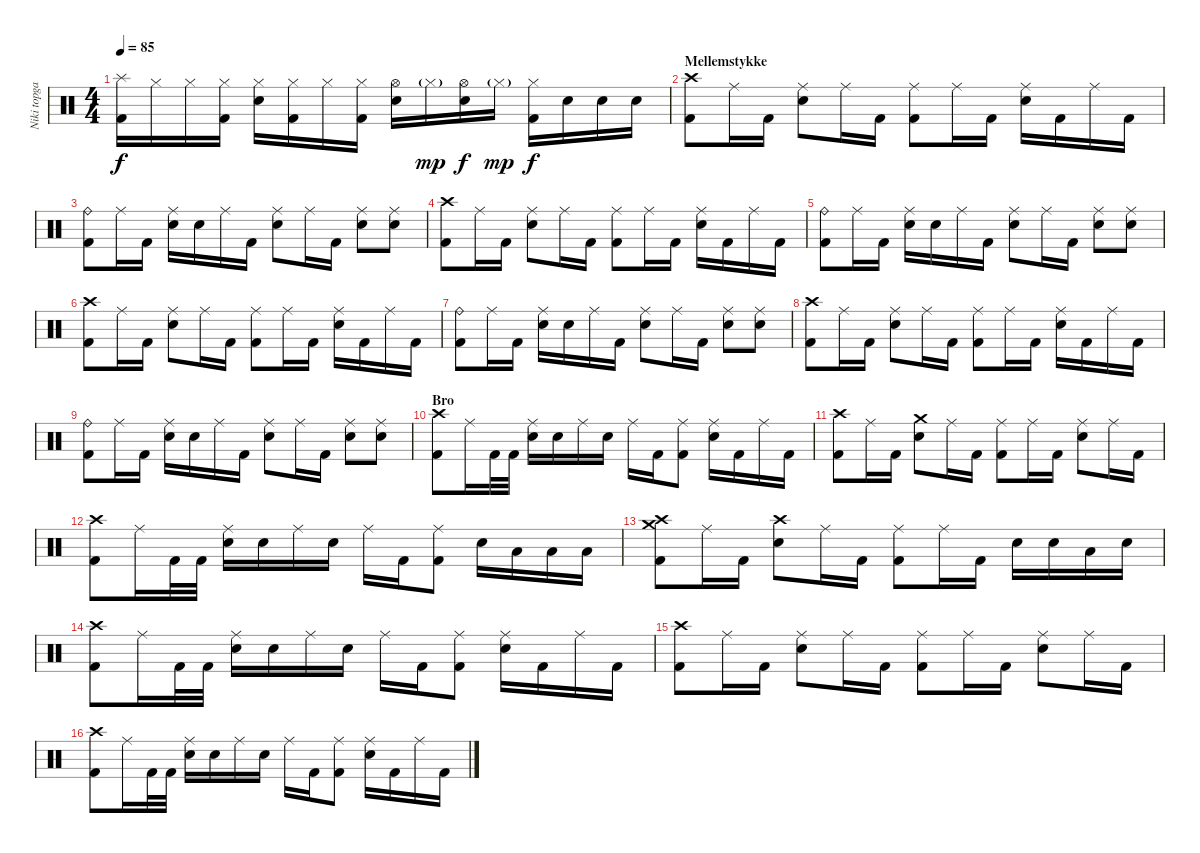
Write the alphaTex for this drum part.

\track ("Niki topgaard" "Niki topga") {instrument percussion}
\staff {score}
\articulation defaults
\ts (4 4)
\tempo 85
\clef neutral
\ks c
("Splash (hit)" "Kick (hit) 2").16{dy f} "Hi-Hat (closed)".16 "Hi-Hat (closed)".16 ("Hi-Hat (closed)" "Kick (hit) 2").16 ("Hi-Hat (closed)" "Snare (hit) 2").16 ("Hi-Hat (closed)" "Kick (hit) 2").16 "Hi-Hat (closed)".16 ("Hi-Hat (closed)" "Kick (hit) 2").16 ("Hi-Hat (open)" "Snare (hit) 2").16 "Hi-Hat (closed)"{g}.16{dy mp} ("Hi-Hat (open)" "Snare (hit) 2").16{dy f} "Hi-Hat (closed)"{g}.16{dy mp} ("Hi-Hat (closed)" "Kick (hit) 2").16{dy f} "Snare (hit) 2".16 "Snare (hit) 2".16 "Snare (hit) 2".16 |
\section ("" "Mellemstykke")
("Crash high (hit)" "Kick (hit) 2").8 "Ride (middle)".16 "Kick (hit) 2".16 ("Ride (middle)" "Snare (hit) 2").8 "Ride (middle)".16 "Kick (hit) 2".16 ("Ride (middle)" "Kick (hit) 2").8 "Ride (middle)".16 "Kick (hit) 2".16 ("Ride (middle)" "Snare (hit) 2").16 "Kick (hit) 2".16 "Ride (middle)".16 "Kick (hit) 2".16 |
("Ride (bell)" "Kick (hit) 2").8 "Ride (middle)".16 "Kick (hit) 2".16 ("Ride (middle)" "Snare (hit) 2").16 "Snare (hit) 2".16 "Ride (middle)".16 "Kick (hit) 2".16 ("Ride (middle)" "Snare (hit) 2").8 "Ride (middle)".16 "Kick (hit) 2".16 ("Ride (middle)" "Snare (hit) 2").8 ("Ride (middle)" "Snare (hit) 2").8 |
("Crash high (hit)" "Kick (hit) 2").8 "Ride (middle)".16 "Kick (hit) 2".16 ("Ride (middle)" "Snare (hit) 2").8 "Ride (middle)".16 "Kick (hit) 2".16 ("Ride (middle)" "Kick (hit) 2").8 "Ride (middle)".16 "Kick (hit) 2".16 ("Ride (middle)" "Snare (hit) 2").16 "Kick (hit) 2".16 "Ride (middle)".16 "Kick (hit) 2".16 |
("Ride (bell)" "Kick (hit) 2").8 "Ride (middle)".16 "Kick (hit) 2".16 ("Ride (middle)" "Snare (hit) 2").16 "Snare (hit) 2".16 "Ride (middle)".16 "Kick (hit) 2".16 ("Ride (middle)" "Snare (hit) 2").8 "Ride (middle)".16 "Kick (hit) 2".16 ("Ride (middle)" "Snare (hit) 2").8 ("Ride (middle)" "Snare (hit) 2").8 |
("Crash high (hit)" "Kick (hit) 2").8 "Ride (middle)".16 "Kick (hit) 2".16 ("Ride (middle)" "Snare (hit) 2").8 "Ride (middle)".16 "Kick (hit) 2".16 ("Ride (middle)" "Kick (hit) 2").8 "Ride (middle)".16 "Kick (hit) 2".16 ("Ride (middle)" "Snare (hit) 2").16 "Kick (hit) 2".16 "Ride (middle)".16 "Kick (hit) 2".16 |
("Ride (bell)" "Kick (hit) 2").8 "Ride (middle)".16 "Kick (hit) 2".16 ("Ride (middle)" "Snare (hit) 2").16 "Snare (hit) 2".16 "Ride (middle)".16 "Kick (hit) 2".16 ("Ride (middle)" "Snare (hit) 2").8 "Ride (middle)".16 "Kick (hit) 2".16 ("Ride (middle)" "Snare (hit) 2").8 ("Ride (middle)" "Snare (hit) 2").8 |
("Crash high (hit)" "Kick (hit) 2").8 "Ride (middle)".16 "Kick (hit) 2".16 ("Ride (middle)" "Snare (hit) 2").8 "Ride (middle)".16 "Kick (hit) 2".16 ("Ride (middle)" "Kick (hit) 2").8 "Ride (middle)".16 "Kick (hit) 2".16 ("Ride (middle)" "Snare (hit) 2").16 "Kick (hit) 2".16 "Ride (middle)".16 "Kick (hit) 2".16 |
("Ride (bell)" "Kick (hit) 2").8 "Ride (middle)".16 "Kick (hit) 2".16 ("Ride (middle)" "Snare (hit) 2").16 "Snare (hit) 2".16 "Ride (middle)".16 "Kick (hit) 2".16 ("Ride (middle)" "Snare (hit) 2").8 "Ride (middle)".16 "Kick (hit) 2".16 ("Ride (middle)" "Snare (hit) 2").8 ("Ride (middle)" "Snare (hit) 2").8 |
\section ("" "Bro")
("Crash high (hit)" "Kick (hit) 2").8 "Ride (middle)".16 "Kick (hit) 2".32 "Kick (hit) 2".32 ("Ride (middle)" "Snare (hit) 2").16 "Snare (hit) 2".16 "Ride (middle)".16 "Snare (hit) 2".16 "Ride (middle)".16 "Kick (hit) 2".16 ("Ride (middle)" "Kick (hit) 2").8 ("Ride (middle)" "Snare (hit) 2").16 "Kick (hit) 2".16 "Ride (middle)".16 "Kick (hit) 2".16 |
("Crash high (hit)" "Kick (hit) 2").8 "Ride (middle)".16 "Kick (hit) 2".16 ("Crash medium (hit)" "Snare (hit) 2").8 "Ride (middle)".16 "Kick (hit) 2".16 ("Ride (middle)" "Kick (hit) 2").8 "Ride (middle)".16 "Kick (hit) 2".16 ("Ride (middle)" "Snare (hit) 2").8 "Ride (middle)".16 "Kick (hit) 2".16 |
("Crash high (hit)" "Kick (hit) 2").8 "Ride (middle)".16 "Kick (hit) 2".32 "Kick (hit) 2".32 ("Ride (middle)" "Snare (hit) 2").16 "Snare (hit) 2".16 "Ride (middle)".16 "Snare (hit) 2".16 "Ride (middle)".16 "Kick (hit) 2".16 ("Ride (middle)" "Kick (hit) 2").8 "Snare (hit) 2".16 "Low Tom (hit)".16 "Low Floor Tom (hit)".16 "Low Floor Tom (hit)".16 |
("Crash high (hit)" "Crash medium (hit)" "Kick (hit) 2").8 "Ride (middle)".16 "Kick (hit) 2".16 ("Crash high (hit)" "Snare (hit) 2").8 "Ride (middle)".16 "Kick (hit) 2".16 ("Ride (middle)" "Kick (hit) 2").8 "Ride (middle)".16 "Kick (hit) 2".16 "Snare (hit) 2".16 "Snare (hit) 2".16 "Low Tom (hit)".16 "Snare (hit) 2".16 |
("Crash high (hit)" "Kick (hit) 2").8 "Ride (middle)".16 "Kick (hit) 2".32 "Kick (hit) 2".32 ("Ride (middle)" "Snare (hit) 2").16 "Snare (hit) 2".16 "Ride (middle)".16 "Snare (hit) 2".16 "Ride (middle)".16 "Kick (hit) 2".16 ("Ride (middle)" "Kick (hit) 2").8 ("Ride (middle)" "Snare (hit) 2").16 "Kick (hit) 2".16 "Ride (middle)".16 "Kick (hit) 2".16 |
("Crash high (hit)" "Kick (hit) 2").8 "Ride (middle)".16 "Kick (hit) 2".16 ("Ride (middle)" "Snare (hit) 2").8 "Ride (middle)".16 "Kick (hit) 2".16 ("Ride (middle)" "Kick (hit) 2").8 "Ride (middle)".16 "Kick (hit) 2".16 ("Ride (middle)" "Snare (hit) 2").8 "Ride (middle)".16 "Kick (hit) 2".16 |
("Crash high (hit)" "Kick (hit) 2").8 "Ride (middle)".16 "Kick (hit) 2".32 "Kick (hit) 2".32 ("Ride (middle)" "Snare (hit) 2").16 "Snare (hit) 2".16 "Ride (middle)".16 "Snare (hit) 2".16 "Ride (middle)".16 "Kick (hit) 2".16 ("Ride (middle)" "Kick (hit) 2").8 ("Ride (middle)" "Snare (hit) 2").16 "Kick (hit) 2".16 "Ride (middle)".16 "Kick (hit) 2".16
